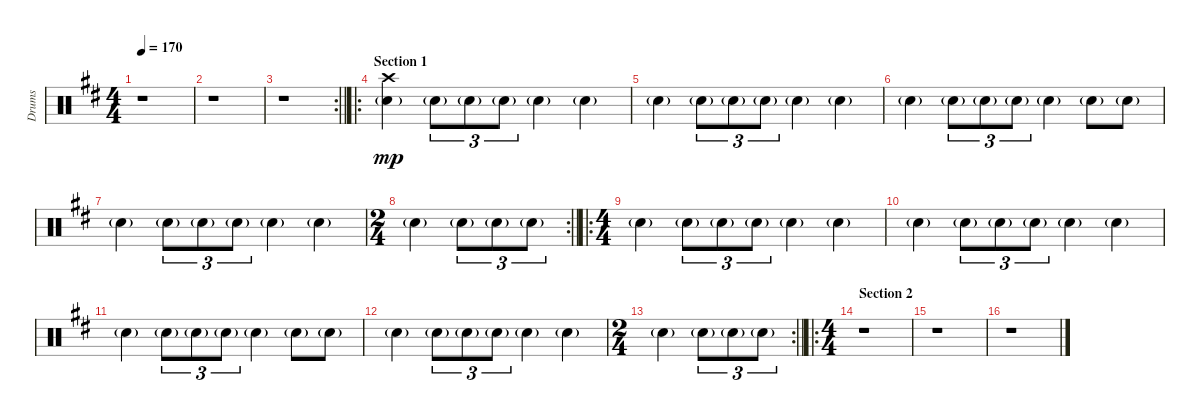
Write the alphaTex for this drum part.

\track ("Drums" "Drums") {instrument percussion}
\staff {score}
\articulation defaults
\ts (4 4)
\tempo 170
\clef neutral
\ks d
r.1{dy mp} |
r.1 |
\rc 2
\barLineRight lightlight
r.1 |
\ro
\section ("" "Section 1")
("Crash high (hit)" "Snare (hit) 2"{g}).4 "Snare (hit) 2"{g}.8{tu (3 2)} "Snare (hit) 2"{g}.8{tu (3 2)} "Snare (hit) 2"{g}.8{tu (3 2)} "Snare (hit) 2"{g}.4 "Snare (hit) 2"{g}.4 |
"Snare (hit) 2"{g}.4 "Snare (hit) 2"{g}.8{tu (3 2)} "Snare (hit) 2"{g}.8{tu (3 2)} "Snare (hit) 2"{g}.8{tu (3 2)} "Snare (hit) 2"{g}.4 "Snare (hit) 2"{g}.4 |
"Snare (hit) 2"{g}.4 "Snare (hit) 2"{g}.8{tu (3 2)} "Snare (hit) 2"{g}.8{tu (3 2)} "Snare (hit) 2"{g}.8{tu (3 2)} "Snare (hit) 2"{g}.4 "Snare (hit) 2"{g}.8 "Snare (hit) 2"{g}.8 |
"Snare (hit) 2"{g}.4 "Snare (hit) 2"{g}.8{tu (3 2)} "Snare (hit) 2"{g}.8{tu (3 2)} "Snare (hit) 2"{g}.8{tu (3 2)} "Snare (hit) 2"{g}.4 "Snare (hit) 2"{g}.4 |
\rc 2
\ts (2 4)
\barLineRight lightlight "Snare (hit) 2"{g}.4 "Snare (hit) 2"{g}.8{tu (3 2)} "Snare (hit) 2"{g}.8{tu (3 2)} "Snare (hit) 2"{g}.8{tu (3 2)}
|
\ro
\ts (4 4)
"Snare (hit) 2"{g}.4 "Snare (hit) 2"{g}.8{tu (3 2)} "Snare (hit) 2"{g}.8{tu (3 2)} "Snare (hit) 2"{g}.8{tu (3 2)} "Snare (hit) 2"{g}.4 "Snare (hit) 2"{g}.4 |
"Snare (hit) 2"{g}.4 "Snare (hit) 2"{g}.8{tu (3 2)} "Snare (hit) 2"{g}.8{tu (3 2)} "Snare (hit) 2"{g}.8{tu (3 2)} "Snare (hit) 2"{g}.4 "Snare (hit) 2"{g}.4 |
"Snare (hit) 2"{g}.4 "Snare (hit) 2"{g}.8{tu (3 2)} "Snare (hit) 2"{g}.8{tu (3 2)} "Snare (hit) 2"{g}.8{tu (3 2)} "Snare (hit) 2"{g}.4 "Snare (hit) 2"{g}.8 "Snare (hit) 2"{g}.8 |
"Snare (hit) 2"{g}.4 "Snare (hit) 2"{g}.8{tu (3 2)} "Snare (hit) 2"{g}.8{tu (3 2)} "Snare (hit) 2"{g}.8{tu (3 2)} "Snare (hit) 2"{g}.4 "Snare (hit) 2"{g}.4 |
\rc 2
\ts (2 4)
\barLineRight lightlight "Snare (hit) 2"{g}.4 "Snare (hit) 2"{g}.8{tu (3 2)} "Snare (hit) 2"{g}.8{tu (3 2)} "Snare (hit) 2"{g}.8{tu (3 2)}
|
\ro
\ts (4 4)
\section ("" "Section 2")
r.1 |
r.1 |
r.1
